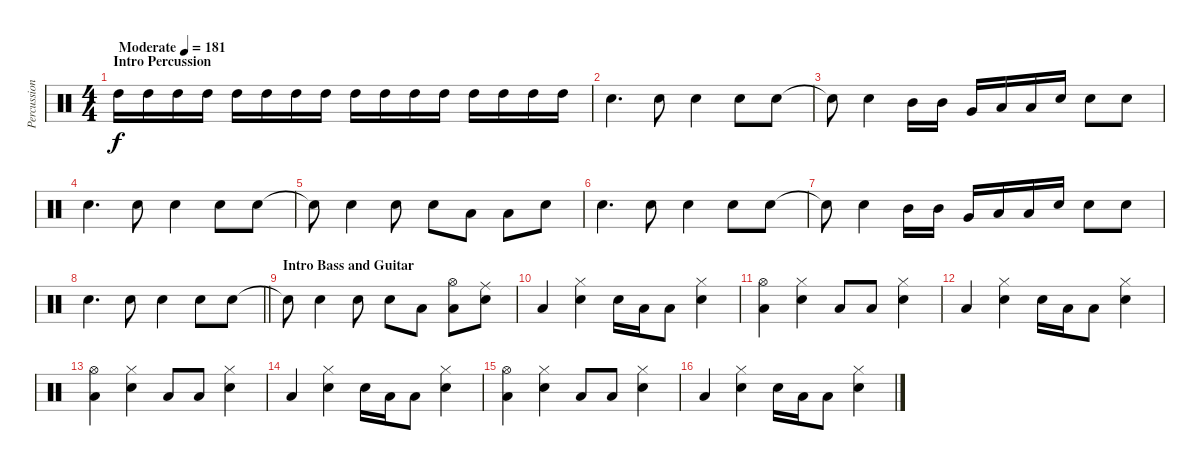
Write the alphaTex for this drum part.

\track ("Percussion" "Percussion") {instrument percussion}
\staff {score}
\articulation defaults
\ts (4 4)
\section ("" "Intro Percussion")
\tempo (181 "Moderate")
\clef neutral
\ks c "High Tom (hit)".16{dy f volume 0} "High Tom (hit)".16{volume 13} "High Tom (hit)".16 "High Tom (hit)".16 "High Tom (hit)".16 "High Tom (hit)".16 "High Tom (hit)".16 "High Tom (hit)".16 "High Tom (hit)".16 "High Tom (hit)".16 "High Tom (hit)".16 "High Tom (hit)".16 "High Tom (hit)".16 "High Tom (hit)".16 "High Tom (hit)".16 "High Tom (hit)".16
|
"Snare (hit) 2".4{d} "Snare (hit) 2".8 "Snare (hit) 2".4 "Snare (hit) 2".8 "Snare (hit) 2".8 |
"Snare (hit) 2"{t}.8 "Snare (hit) 2".4 "Mid Tom (hit)".16 "Mid Tom (hit)".16 "Very Low Tom (hit)".16 "Low Floor Tom (hit)".16 "Low Floor Tom (hit)".16 "Snare (hit) 2".16 "Snare (hit) 2".8 "Snare (hit) 2".8 |
"Snare (hit) 2".4{d} "Snare (hit) 2".8 "Snare (hit) 2".4 "Snare (hit) 2".8 "Snare (hit) 2".8 |
"Snare (hit) 2"{t}.8 "Snare (hit) 2".4 "Snare (hit) 2".8 "Snare (hit) 2".8 "Low Tom (hit)".8 "Low Tom (hit)".8 "Snare (hit) 2".8 |
"Snare (hit) 2".4{d} "Snare (hit) 2".8 "Snare (hit) 2".4 "Snare (hit) 2".8 "Snare (hit) 2".8 |
"Snare (hit) 2"{t}.8 "Snare (hit) 2".4 "Mid Tom (hit)".16 "Mid Tom (hit)".16 "Very Low Tom (hit)".16 "Low Floor Tom (hit)".16 "Low Floor Tom (hit)".16 "Snare (hit) 2".16 "Snare (hit) 2".8 "Snare (hit) 2".8 |
\barLineRight lightlight "Snare (hit) 2".4{d} "Snare (hit) 2".8 "Snare (hit) 2".4 "Snare (hit) 2".8 "Snare (hit) 2".8
|
\section ("" "Intro Bass and Guitar")
"Snare (hit) 2"{t}.8 "Snare (hit) 2".4 "Snare (hit) 2".8 "Snare (hit) 2".8 "Low Tom (hit)".8 ("Low Tom (hit)" "Hi-Hat (open)").8 ("Snare (hit) 2" "Ride (middle)").8 |
"Low Tom (hit)".4 ("Hi-Hat (closed)" "Snare (hit) 2").4 "Snare (hit) 2".16 "Low Tom (hit)".16 "Low Tom (hit)".8 ("Hi-Hat (closed)" "Snare (hit) 2").4 |
("Hi-Hat (open)" "Low Tom (hit)").4 ("Hi-Hat (closed)" "Snare (hit) 2").4 "Low Tom (hit)".8 "Low Tom (hit)".8 ("Hi-Hat (closed)" "Snare (hit) 2").4 |
"Low Tom (hit)".4 ("Hi-Hat (closed)" "Snare (hit) 2").4 "Snare (hit) 2".16 "Low Tom (hit)".16 "Low Tom (hit)".8 ("Hi-Hat (closed)" "Snare (hit) 2").4 |
("Hi-Hat (open)" "Low Tom (hit)").4 ("Hi-Hat (closed)" "Snare (hit) 2").4 "Low Tom (hit)".8 "Low Tom (hit)".8 ("Hi-Hat (closed)" "Snare (hit) 2").4 |
"Low Tom (hit)".4 ("Hi-Hat (closed)" "Snare (hit) 2").4 "Snare (hit) 2".16 "Low Tom (hit)".16 "Low Tom (hit)".8 ("Hi-Hat (closed)" "Snare (hit) 2").4 |
("Hi-Hat (open)" "Low Tom (hit)").4 ("Hi-Hat (closed)" "Snare (hit) 2").4 "Low Tom (hit)".8 "Low Tom (hit)".8 ("Hi-Hat (closed)" "Snare (hit) 2").4 |
"Low Tom (hit)".4 ("Hi-Hat (closed)" "Snare (hit) 2").4 "Snare (hit) 2".16 "Low Tom (hit)".16 "Low Tom (hit)".8 ("Hi-Hat (closed)" "Snare (hit) 2").4
